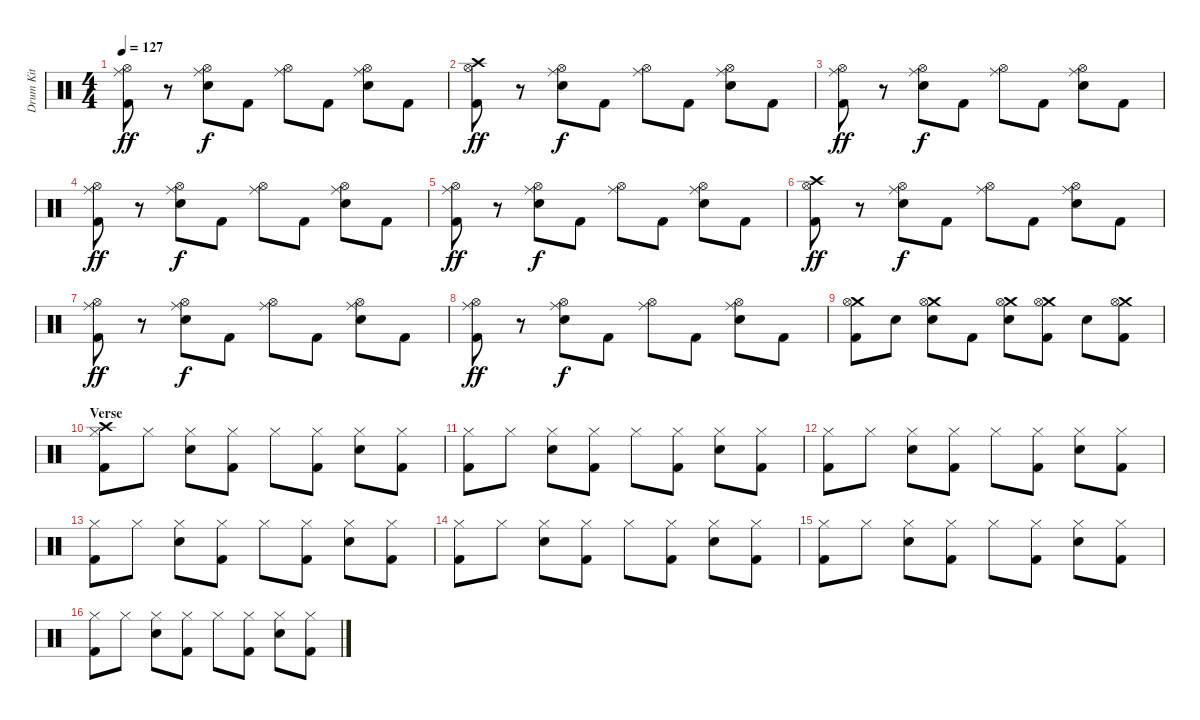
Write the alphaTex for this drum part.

\track ("Drum Kit" "Drum Kit") {instrument percussion}
\staff {score}
\articulation defaults
\ts (4 4)
\tempo 127
\clef neutral
\ks c
("Ride (middle)" "Hi-Hat (open)" "Kick (hit) 2").8{dy ff} r.8 ("Ride (middle)" "Hi-Hat (open)" "Electric Snare (hit)").8{dy f} "Kick (hit) 2".8 ("Ride (middle)" "Hi-Hat (open)").8 "Kick (hit) 2".8 ("Ride (middle)" "Hi-Hat (open)" "Electric Snare (hit)").8 "Kick (hit) 2".8 |
("Crash high (hit)" "Hi-Hat (open)" "Kick (hit) 2").8{dy ff} r.8 ("Ride (middle)" "Hi-Hat (open)" "Electric Snare (hit)").8{dy f} "Kick (hit) 2".8 ("Ride (middle)" "Hi-Hat (open)").8 "Kick (hit) 2".8 ("Ride (middle)" "Hi-Hat (open)" "Electric Snare (hit)").8 "Kick (hit) 2".8 |
("Ride (middle)" "Hi-Hat (open)" "Kick (hit) 2").8{dy ff} r.8 ("Ride (middle)" "Hi-Hat (open)" "Electric Snare (hit)").8{dy f} "Kick (hit) 2".8 ("Ride (middle)" "Hi-Hat (open)").8 "Kick (hit) 2".8 ("Ride (middle)" "Hi-Hat (open)" "Electric Snare (hit)").8 "Kick (hit) 2".8 |
("Ride (middle)" "Hi-Hat (open)" "Kick (hit) 2").8{dy ff} r.8 ("Ride (middle)" "Hi-Hat (open)" "Electric Snare (hit)").8{dy f} "Kick (hit) 2".8 ("Ride (middle)" "Hi-Hat (open)").8 "Kick (hit) 2".8 ("Ride (middle)" "Hi-Hat (open)" "Electric Snare (hit)").8 "Kick (hit) 2".8 |
("Ride (middle)" "Hi-Hat (open)" "Kick (hit) 2").8{dy ff} r.8 ("Ride (middle)" "Hi-Hat (open)" "Electric Snare (hit)").8{dy f} "Kick (hit) 2".8 ("Ride (middle)" "Hi-Hat (open)").8 "Kick (hit) 2".8 ("Ride (middle)" "Hi-Hat (open)" "Electric Snare (hit)").8 "Kick (hit) 2".8 |
("Crash high (hit)" "Hi-Hat (open)" "Kick (hit) 2").8{dy ff} r.8 ("Ride (middle)" "Hi-Hat (open)" "Electric Snare (hit)").8{dy f} "Kick (hit) 2".8 ("Ride (middle)" "Hi-Hat (open)").8 "Kick (hit) 2".8 ("Ride (middle)" "Hi-Hat (open)" "Electric Snare (hit)").8 "Kick (hit) 2".8 |
("Ride (middle)" "Hi-Hat (open)" "Kick (hit) 2").8{dy ff} r.8 ("Ride (middle)" "Hi-Hat (open)" "Electric Snare (hit)").8{dy f} "Kick (hit) 2".8 ("Ride (middle)" "Hi-Hat (open)").8 "Kick (hit) 2".8 ("Ride (middle)" "Hi-Hat (open)" "Electric Snare (hit)").8 "Kick (hit) 2".8 |
("Ride (middle)" "Hi-Hat (open)" "Kick (hit) 2").8{dy ff} r.8 ("Ride (middle)" "Hi-Hat (open)" "Electric Snare (hit)").8{dy f} "Kick (hit) 2".8 ("Ride (middle)" "Hi-Hat (open)").8 "Kick (hit) 2".8 ("Ride (middle)" "Hi-Hat (open)" "Electric Snare (hit)").8 "Kick (hit) 2".8 |
("Crash medium (hit)" "Hi-Hat (open)" "Kick (hit) 2").8 "Electric Snare (hit)".8 ("Crash medium (hit)" "Hi-Hat (open)" "Electric Snare (hit)").8 "Kick (hit) 2".8 ("Crash medium (hit)" "Hi-Hat (open)" "Electric Snare (hit)").8 ("Crash medium (hit)" "Hi-Hat (open)" "Kick (hit) 2").8 "Electric Snare (hit)".8 ("Crash medium (hit)" "Hi-Hat (open)" "Kick (hit) 2").8 |
\section ("" "Verse")
("Crash high (hit)" "Hi-Hat (closed)" "Kick (hit) 2").8 "Hi-Hat (closed)".8 ("Hi-Hat (closed)" "Electric Snare (hit)").8 ("Hi-Hat (closed)" "Kick (hit) 2").8 "Hi-Hat (closed)".8 ("Hi-Hat (closed)" "Kick (hit) 2").8 ("Hi-Hat (closed)" "Electric Snare (hit)").8 ("Hi-Hat (closed)" "Kick (hit) 2").8 |
("Hi-Hat (closed)" "Kick (hit) 2").8 "Hi-Hat (closed)".8 ("Hi-Hat (closed)" "Electric Snare (hit)").8 ("Hi-Hat (closed)" "Kick (hit) 2").8 "Hi-Hat (closed)".8 ("Hi-Hat (closed)" "Kick (hit) 2").8 ("Hi-Hat (closed)" "Electric Snare (hit)").8 ("Hi-Hat (closed)" "Kick (hit) 2").8 |
("Hi-Hat (closed)" "Kick (hit) 2").8 "Hi-Hat (closed)".8 ("Hi-Hat (closed)" "Electric Snare (hit)").8 ("Hi-Hat (closed)" "Kick (hit) 2").8 "Hi-Hat (closed)".8 ("Hi-Hat (closed)" "Kick (hit) 2").8 ("Hi-Hat (closed)" "Electric Snare (hit)").8 ("Hi-Hat (closed)" "Kick (hit) 2").8 |
("Hi-Hat (closed)" "Kick (hit) 2").8 "Hi-Hat (closed)".8 ("Hi-Hat (closed)" "Electric Snare (hit)").8 ("Hi-Hat (closed)" "Kick (hit) 2").8 "Hi-Hat (closed)".8 ("Hi-Hat (closed)" "Kick (hit) 2").8 ("Hi-Hat (closed)" "Electric Snare (hit)").8 ("Hi-Hat (closed)" "Kick (hit) 2").8 |
("Hi-Hat (closed)" "Kick (hit) 2").8 "Hi-Hat (closed)".8 ("Hi-Hat (closed)" "Electric Snare (hit)").8 ("Hi-Hat (closed)" "Kick (hit) 2").8 "Hi-Hat (closed)".8 ("Hi-Hat (closed)" "Kick (hit) 2").8 ("Hi-Hat (closed)" "Electric Snare (hit)").8 ("Hi-Hat (closed)" "Kick (hit) 2").8 |
("Hi-Hat (closed)" "Kick (hit) 2").8 "Hi-Hat (closed)".8 ("Hi-Hat (closed)" "Electric Snare (hit)").8 ("Hi-Hat (closed)" "Kick (hit) 2").8 "Hi-Hat (closed)".8 ("Hi-Hat (closed)" "Kick (hit) 2").8 ("Hi-Hat (closed)" "Electric Snare (hit)").8 ("Hi-Hat (closed)" "Kick (hit) 2").8 |
("Hi-Hat (closed)" "Kick (hit) 2").8 "Hi-Hat (closed)".8 ("Hi-Hat (closed)" "Electric Snare (hit)").8 ("Hi-Hat (closed)" "Kick (hit) 2").8 "Hi-Hat (closed)".8 ("Hi-Hat (closed)" "Kick (hit) 2").8 ("Hi-Hat (closed)" "Electric Snare (hit)").8 ("Hi-Hat (closed)" "Kick (hit) 2").8
